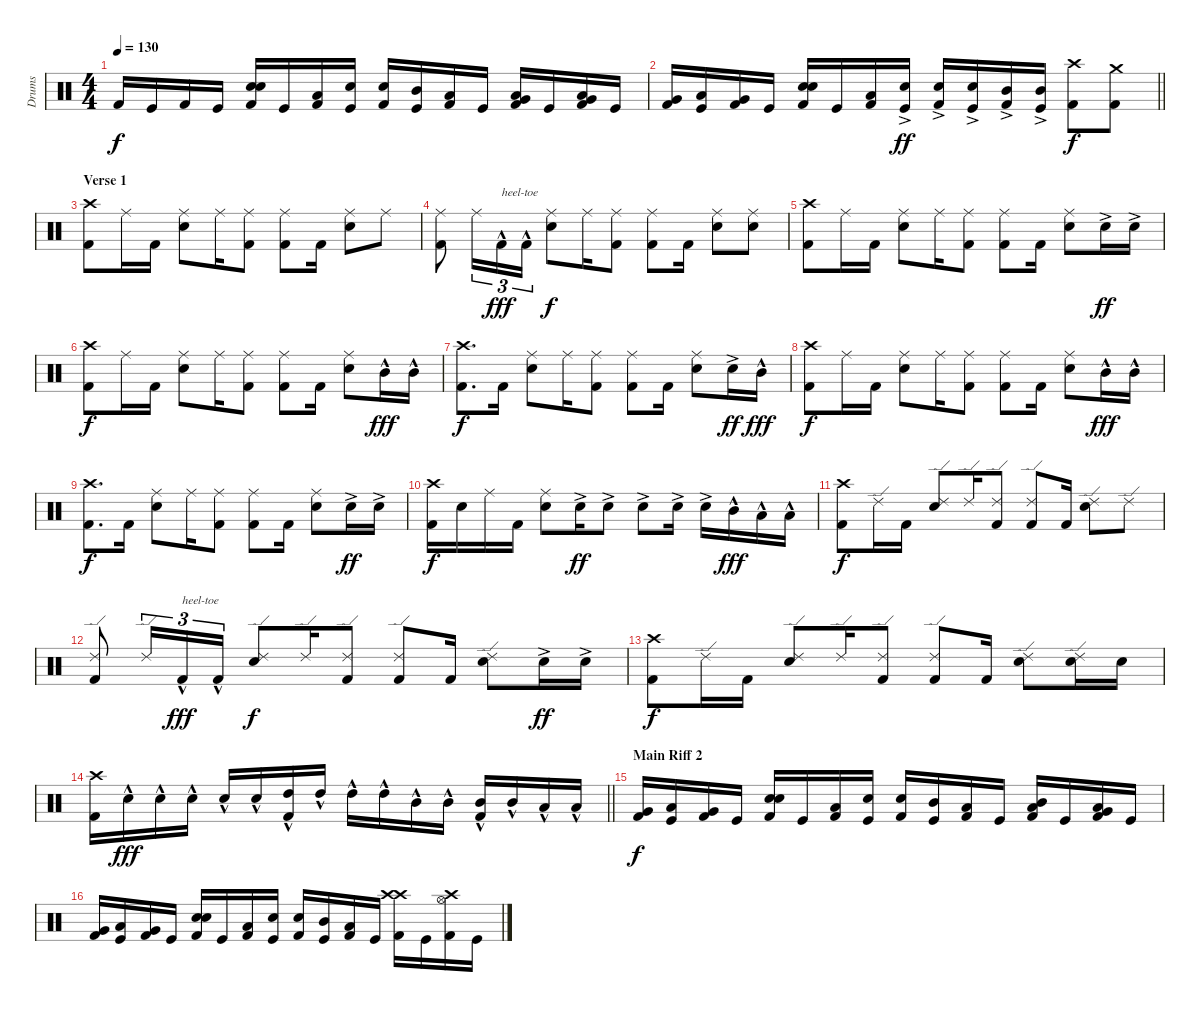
\track ("Drums" "Drums") {instrument percussion}
\staff {score}
\articulation defaults
\ts (4 4)
\tempo 130
\clef neutral
\ks c "Kick (hit) 2".16{dy f} "Kick (hit)".16 "Kick (hit) 2".16 "Kick (hit)".16
("Snare (hit) 2" "Snare (hit) 2" "Kick (hit) 2").16 "Kick (hit)".16 ("Low Tom (hit)" "Kick (hit) 2").16 ("Snare (hit) 2" "Kick (hit)").16 ("Snare (hit) 2" "Kick (hit) 2").16 ("Mid Tom (hit)" "Kick (hit)").16 ("Low Tom (hit)" "Kick (hit) 2").16 "Kick (hit)".16 ("Low Tom (hit)" "Very Low Tom (hit)" "Kick (hit) 2").16 "Kick (hit)".16 ("Low Tom (hit)" "Very Low Tom (hit)" "Kick (hit) 2").16 "Kick (hit)".16 |
\barLineRight lightlight
("Very Low Tom (hit)" "Kick (hit) 2").16 ("Low Tom (hit)" "Kick (hit)").16 ("Very Low Tom (hit)" "Kick (hit) 2").16 "Kick (hit)".16 ("Snare (hit) 2" "Snare (hit) 2" "Kick (hit) 2").16 "Kick (hit)".16 ("Low Tom (hit)" "Kick (hit) 2").16 ("Snare (hit) 2"{ac} "Kick (hit)").16{dy ff} ("Snare (hit) 2"{ac} "Kick (hit) 2").16 ("Snare (hit) 2"{ac} "Kick (hit)").16 ("Mid Tom (hit)"{ac} "Kick (hit) 2").16 ("Mid Tom (hit)"{ac} "Kick (hit)").16 ("Crash high (hit)" "Kick (hit) 2").8{dy f} ("Crash medium (hit)" "Kick (hit) 2").8 |
\section ("" "Verse 1")
("Crash high (hit)" "Kick (hit) 2").8 "Ride (middle)".16 "Kick (hit) 2".16 ("Ride (middle)" "Snare (hit) 2").8 "Ride (middle)".16 ("Ride (middle)" "Kick (hit) 2").8 ("Ride (middle)" "Kick (hit) 2").8 "Kick (hit) 2".16 ("Ride (middle)" "Snare (hit) 2").8 "Ride (middle)".8 |
("Ride (middle)" "Kick (hit) 2").8 "Ride (middle)".16{tu (3 2)} "Kick (hit) 2"{hac}.16{tu (3 2) txt "heel-toe" dy fff} "Kick (hit) 2"{hac}.16{tu (3 2)} ("Ride (middle)" "Snare (hit) 2").8{dy f} "Ride (middle)".16 ("Ride (middle)" "Kick (hit) 2").8 ("Ride (middle)" "Kick (hit) 2").8 "Kick (hit) 2".16 ("Ride (middle)" "Snare (hit) 2").8 ("Ride (middle)" "Snare (hit) 2").8 |
("Crash high (hit)" "Kick (hit) 2").8 "Ride (middle)".16 "Kick (hit) 2".16 ("Ride (middle)" "Snare (hit) 2").8 "Ride (middle)".16 ("Ride (middle)" "Kick (hit) 2").8 ("Ride (middle)" "Kick (hit) 2").8 "Kick (hit) 2".16 ("Ride (middle)" "Snare (hit) 2").8 "Snare (hit) 2"{ac}.16{dy ff} "Snare (hit) 2"{ac}.16 |
("Crash high (hit)" "Kick (hit) 2").8{dy f} "Ride (middle)".16 "Kick (hit) 2".16 ("Ride (middle)" "Snare (hit) 2").8 "Ride (middle)".16 ("Ride (middle)" "Kick (hit) 2").8 ("Ride (middle)" "Kick (hit) 2").8 "Kick (hit) 2".16 ("Ride (middle)" "Snare (hit) 2").8 "Mid Tom (hit)"{hac}.16{dy fff} "Mid Tom (hit)"{hac}.16 |
("Crash high (hit)" "Kick (hit) 2").8{d dy f} "Kick (hit) 2".16 ("Ride (middle)" "Snare (hit) 2").8 "Ride (middle)".16 ("Ride (middle)" "Kick (hit) 2").8 ("Ride (middle)" "Kick (hit) 2").8 "Kick (hit) 2".16 ("Ride (middle)" "Snare (hit) 2").8 "Snare (hit) 2"{ac}.16{dy ff} "Mid Tom (hit)"{hac}.16{dy fff} |
("Crash high (hit)" "Kick (hit) 2").8{dy f} "Ride (middle)".16 "Kick (hit) 2".16 ("Ride (middle)" "Snare (hit) 2").8 "Ride (middle)".16 ("Ride (middle)" "Kick (hit) 2").8 ("Ride (middle)" "Kick (hit) 2").8 "Kick (hit) 2".16 ("Ride (middle)" "Snare (hit) 2").8 "Mid Tom (hit)"{hac}.16{dy fff} "Mid Tom (hit)"{hac}.16 |
("Crash high (hit)" "Kick (hit) 2").8{d dy f} "Kick (hit) 2".16 ("Ride (middle)" "Snare (hit) 2").8 "Ride (middle)".16 ("Ride (middle)" "Kick (hit) 2").8 ("Ride (middle)" "Kick (hit) 2").8 "Kick (hit) 2".16 ("Ride (middle)" "Snare (hit) 2").8 "Snare (hit) 2"{ac}.16{dy ff} "Snare (hit) 2"{ac}.16 |
("Crash high (hit)" "Kick (hit) 2").16{dy f} "Snare (hit) 2".16 "Ride (middle)".16 "Kick (hit) 2".16 ("Ride (middle)" "Snare (hit) 2").8 "Snare (hit) 2"{ac}.16{dy ff} "Snare (hit) 2"{ac}.8 "Snare (hit) 2"{ac}.8 "Snare (hit) 2"{ac}.16 "Snare (hit) 2"{ac}.16 "Mid Tom (hit)"{hac}.16{dy fff} "Low Tom (hit)"{hac}.16 "Low Tom (hit)"{hac}.16 |
("Crash high (hit)" "Kick (hit) 2").8{dy f} "Ride (edge) 2".16 "Kick (hit) 2".16 ("Ride (edge) 2" "Snare (hit) 2").8 "Ride (edge) 2".16 ("Ride (edge) 2" "Kick (hit) 2").8 ("Ride (edge) 2" "Kick (hit) 2").8 "Kick (hit) 2".16 ("Ride (edge) 2" "Snare (hit) 2").8 "Ride (edge) 2".8 |
("Ride (edge) 2" "Kick (hit) 2").8 "Ride (edge) 2".16{tu (3 2)} "Kick (hit) 2"{hac}.16{tu (3 2) txt "heel-toe" dy fff} "Kick (hit) 2"{hac}.16{tu (3 2)} ("Ride (edge) 2" "Snare (hit) 2").8{dy f} "Ride (edge) 2".16 ("Ride (edge) 2" "Kick (hit) 2").8 ("Ride (edge) 2" "Kick (hit) 2").8 "Kick (hit) 2".16 ("Ride (edge) 2" "Snare (hit) 2").8 "Snare (hit) 2"{ac}.16{dy ff} "Snare (hit) 2"{ac}.16 |
("Crash high (hit)" "Kick (hit) 2").8{dy f} "Ride (edge) 2".16 "Kick (hit) 2".16 ("Ride (edge) 2" "Snare (hit) 2").8 "Ride (edge) 2".16 ("Ride (edge) 2" "Kick (hit) 2").8 ("Ride (edge) 2" "Kick (hit) 2").8 "Kick (hit) 2".16 ("Ride (edge) 2" "Snare (hit) 2").8 ("Ride (edge) 2" "Snare (hit) 2").16 "Snare (hit) 2".16 |
\barLineRight lightlight
("Crash high (hit)" "Kick (hit) 2").16 "Snare (hit) 2"{hac}.16{dy fff} "Snare (hit) 2"{hac}.16 "Snare (hit) 2"{hac}.16 "Snare (hit) 2"{hac}.16 "Snare (hit) 2"{hac}.16 ("High Tom (hit)"{hac} "Kick (hit) 2").16 "High Tom (hit)"{hac}.16 "High Tom (hit)"{hac}.16 "High Tom (hit)"{hac}.16 "Mid Tom (hit)"{hac}.16 "Mid Tom (hit)"{hac}.16 ("Mid Tom (hit)"{hac} "Kick (hit) 2").16 "Mid Tom (hit)"{hac}.16 "Low Tom (hit)"{hac}.16 "Low Tom (hit)"{hac}.16 |
\section ("" "Main Riff 2")
("Very Low Tom (hit)" "Kick (hit) 2").16{dy f} ("Low Tom (hit)" "Kick (hit)").16 ("Very Low Tom (hit)" "Kick (hit) 2").16 "Kick (hit)".16 ("Snare (hit) 2" "Snare (hit) 2" "Kick (hit) 2").16 "Kick (hit)".16 ("Low Tom (hit)" "Kick (hit) 2").16 ("Snare (hit) 2" "Kick (hit)").16 ("Snare (hit) 2" "Kick (hit) 2").16 ("Mid Tom (hit)" "Kick (hit)").16 ("Low Tom (hit)" "Kick (hit) 2").16 "Kick (hit)".16 ("Mid Tom (hit)" "Low Tom (hit)" "Kick (hit) 2").16 "Kick (hit)".16 ("Low Tom (hit)" "Very Low Tom (hit)" "Kick (hit) 2").16 "Kick (hit)".16 |
("Very Low Tom (hit)" "Kick (hit) 2").16 ("Low Tom (hit)" "Kick (hit)").16 ("Very Low Tom (hit)" "Kick (hit) 2").16 "Kick (hit)".16 ("Snare (hit) 2" "Snare (hit) 2" "Kick (hit) 2").16 "Kick (hit)".16 ("Low Tom (hit)" "Kick (hit) 2").16 ("Snare (hit) 2" "Kick (hit)").16 ("Snare (hit) 2" "Kick (hit) 2").16 ("Mid Tom (hit)" "Kick (hit)").16 ("Low Tom (hit)" "Kick (hit) 2").16 "Kick (hit)".16 ("Crash high (hit)" "Crash high (hit)" "Kick (hit) 2").16 "Kick (hit)".16 ("Crash high (hit)" "Hi-Hat (open)" "Kick (hit) 2").16 "Kick (hit)".16
